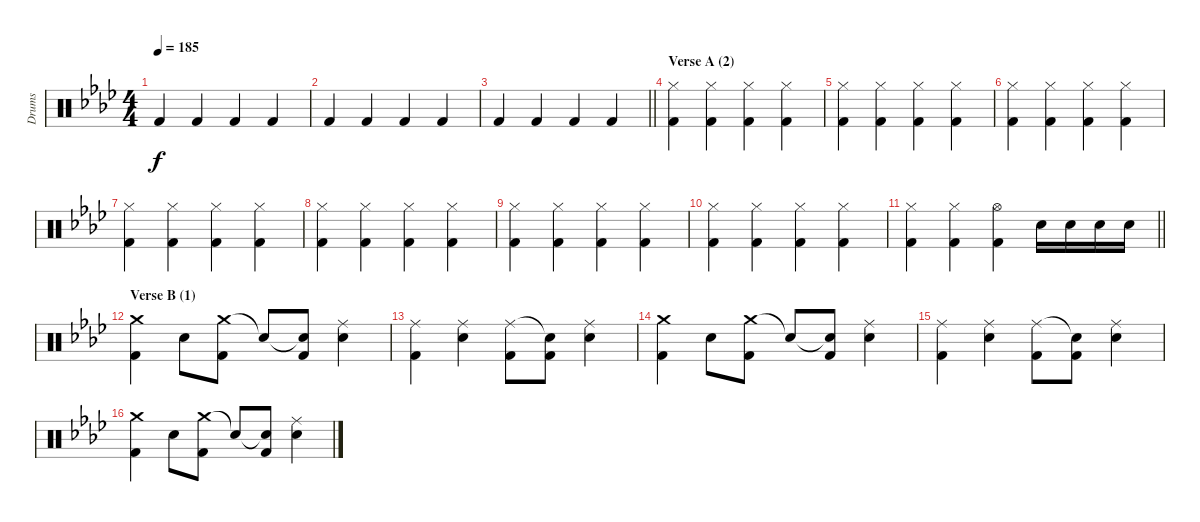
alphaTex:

\track ("Drums" "Drums") {instrument percussion}
\staff {score}
\articulation defaults
\ts (4 4)
\tempo 185
\clef neutral
\ks fminor "Kick (hit) 2".4{dy f} "Kick (hit) 2".4 "Kick (hit) 2".4 "Kick (hit) 2".4
|
"Kick (hit) 2".4 "Kick (hit) 2".4 "Kick (hit) 2".4 "Kick (hit) 2".4 |
\barLineRight lightlight "Kick (hit) 2".4 "Kick (hit) 2".4 "Kick (hit) 2".4 "Kick (hit) 2".4
|
\section ("" "Verse A (2)")
("Hi-Hat (closed)" "Kick (hit) 2").4 ("Hi-Hat (closed)" "Kick (hit) 2").4 ("Hi-Hat (closed)" "Kick (hit) 2").4 ("Hi-Hat (closed)" "Kick (hit) 2").4 |
("Hi-Hat (closed)" "Kick (hit) 2").4 ("Hi-Hat (closed)" "Kick (hit) 2").4 ("Hi-Hat (closed)" "Kick (hit) 2").4 ("Hi-Hat (closed)" "Kick (hit) 2").4 |
("Hi-Hat (closed)" "Kick (hit) 2").4 ("Hi-Hat (closed)" "Kick (hit) 2").4 ("Hi-Hat (closed)" "Kick (hit) 2").4 ("Hi-Hat (closed)" "Kick (hit) 2").4 |
("Hi-Hat (closed)" "Kick (hit) 2").4 ("Hi-Hat (closed)" "Kick (hit) 2").4 ("Hi-Hat (closed)" "Kick (hit) 2").4 ("Hi-Hat (closed)" "Kick (hit) 2").4 |
("Hi-Hat (closed)" "Kick (hit) 2").4 ("Hi-Hat (closed)" "Kick (hit) 2").4 ("Hi-Hat (closed)" "Kick (hit) 2").4 ("Hi-Hat (closed)" "Kick (hit) 2").4 |
("Hi-Hat (closed)" "Kick (hit) 2").4 ("Hi-Hat (closed)" "Kick (hit) 2").4 ("Hi-Hat (closed)" "Kick (hit) 2").4 ("Hi-Hat (closed)" "Kick (hit) 2").4 |
("Hi-Hat (closed)" "Kick (hit) 2").4 ("Hi-Hat (closed)" "Kick (hit) 2").4 ("Hi-Hat (closed)" "Kick (hit) 2").4 ("Hi-Hat (closed)" "Kick (hit) 2").4 |
\barLineRight lightlight
("Hi-Hat (closed)" "Kick (hit) 2").4 ("Hi-Hat (closed)" "Kick (hit) 2").4 ("Hi-Hat (open)" "Kick (hit) 2").4 "Electric Snare (hit)".16 "Electric Snare (hit)".16 "Electric Snare (hit)".16 "Electric Snare (hit)".16 |
\section ("" "Verse B (1)")
("Crash medium (hit)" "Kick (hit) 2").4 "Electric Snare (hit)".8 ("Crash medium (hit)" "Kick (hit) 2").8 "Snare (hit)"{t}.8 ("Snare (hit)"{t} "Kick (hit) 2").8 ("Ride (middle)" "Electric Snare (hit)").4 |
("Ride (middle)" "Kick (hit) 2").4 ("Ride (middle)" "Electric Snare (hit)").4 ("Ride (middle)" "Kick (hit) 2").8 ("Snare (hit)"{t} "Kick (hit) 2").8 ("Ride (middle)" "Electric Snare (hit)").4 |
("Crash medium (hit)" "Kick (hit) 2").4 "Electric Snare (hit)".8 ("Crash medium (hit)" "Kick (hit) 2").8 "Snare (hit)"{t}.8 ("Snare (hit)"{t} "Kick (hit) 2").8 ("Ride (middle)" "Electric Snare (hit)").4 |
("Ride (middle)" "Kick (hit) 2").4 ("Ride (middle)" "Electric Snare (hit)").4 ("Ride (middle)" "Kick (hit) 2").8 ("Snare (hit)"{t} "Kick (hit) 2").8 ("Ride (middle)" "Electric Snare (hit)").4 |
("Crash medium (hit)" "Kick (hit) 2").4 "Electric Snare (hit)".8 ("Crash medium (hit)" "Kick (hit) 2").8 "Snare (hit)"{t}.8 ("Snare (hit)"{t} "Kick (hit) 2").8 ("Ride (middle)" "Electric Snare (hit)").4
